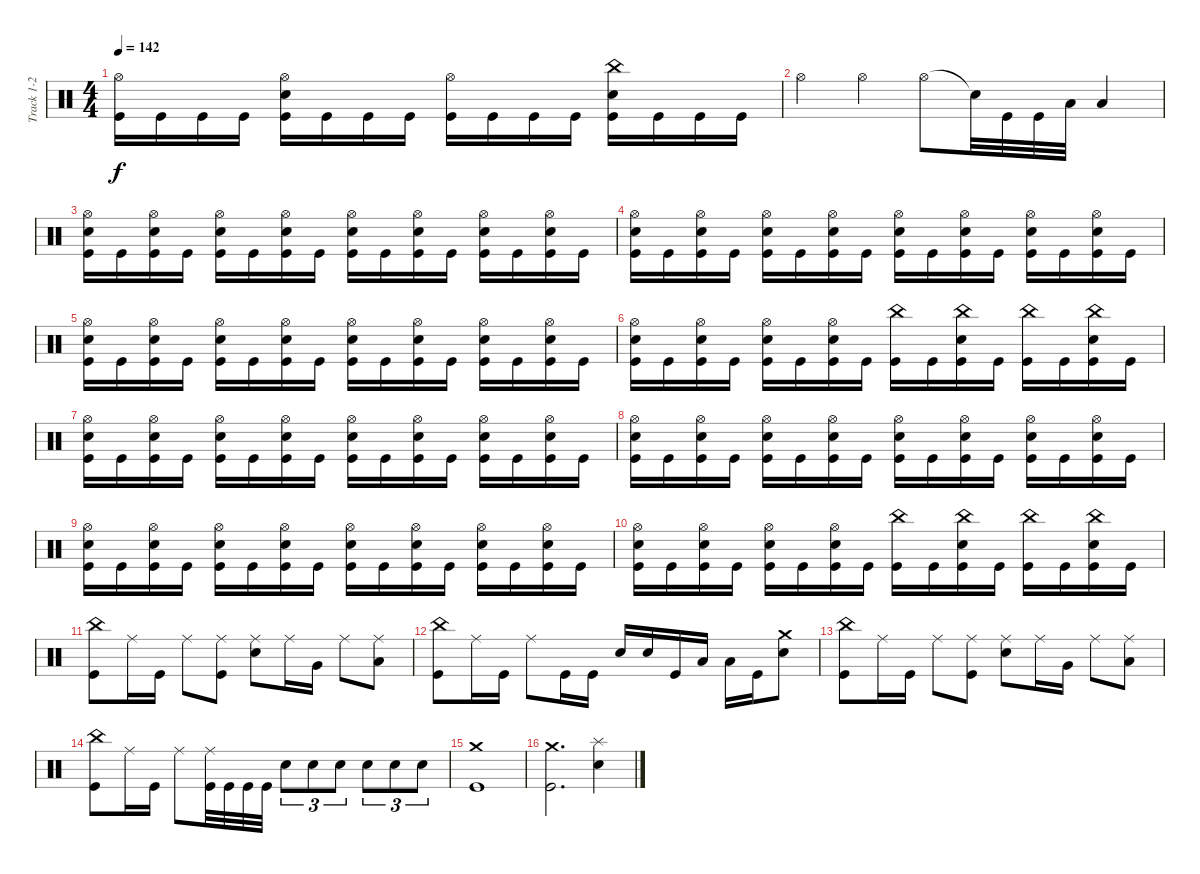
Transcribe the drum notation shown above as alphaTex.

\track ("Track 1-2" "Track 1-2") {instrument percussion}
\staff {score}
\articulation defaults
\ts (4 4)
\tempo 142
\clef neutral
\ks c
("Hi-Hat (open)" "Kick (hit)").16{dy f} "Kick (hit)".16 "Kick (hit)".16 "Kick (hit)".16 ("Hi-Hat (open)" "Electric Snare (hit)" "Kick (hit)").16 "Kick (hit)".16 "Kick (hit)".16 "Kick (hit)".16 ("Hi-Hat (open)" "Kick (hit)").16 "Kick (hit)".16 "Kick (hit)".16 "Kick (hit)".16 ("China (hit)" "Electric Snare (hit)" "Kick (hit)").16 "Kick (hit)".16 "Kick (hit)".16 "Kick (hit)".16 |
"Hi-Hat (open)".4 "Hi-Hat (open)".4 "Hi-Hat (open)".8 "Snare (hit)"{t}.32 "Kick (hit)".32 "Kick (hit)".32 "Low Floor Tom (hit)".32 "Low Floor Tom (hit)".4 |
("Hi-Hat (open)" "Electric Snare (hit)" "Kick (hit)").16 "Kick (hit)".16 ("Hi-Hat (open)" "Electric Snare (hit)" "Kick (hit)").16 "Kick (hit)".16 ("Hi-Hat (open)" "Electric Snare (hit)" "Kick (hit)").16 "Kick (hit)".16 ("Hi-Hat (open)" "Electric Snare (hit)" "Kick (hit)").16 "Kick (hit)".16 ("Hi-Hat (open)" "Electric Snare (hit)" "Kick (hit)").16 "Kick (hit)".16 ("Hi-Hat (open)" "Electric Snare (hit)" "Kick (hit)").16 "Kick (hit)".16 ("Hi-Hat (open)" "Electric Snare (hit)" "Kick (hit)").16 "Kick (hit)".16 ("Hi-Hat (open)" "Electric Snare (hit)" "Kick (hit)").16 "Kick (hit)".16 |
("Hi-Hat (open)" "Electric Snare (hit)" "Kick (hit)").16 "Kick (hit)".16 ("Hi-Hat (open)" "Electric Snare (hit)" "Kick (hit)").16 "Kick (hit)".16 ("Hi-Hat (open)" "Electric Snare (hit)" "Kick (hit)").16 "Kick (hit)".16 ("Hi-Hat (open)" "Electric Snare (hit)" "Kick (hit)").16 "Kick (hit)".16 ("Hi-Hat (open)" "Electric Snare (hit)" "Kick (hit)").16 "Kick (hit)".16 ("Hi-Hat (open)" "Electric Snare (hit)" "Kick (hit)").16 "Kick (hit)".16 ("Hi-Hat (open)" "Electric Snare (hit)" "Kick (hit)").16 "Kick (hit)".16 ("Hi-Hat (open)" "Electric Snare (hit)" "Kick (hit)").16 "Kick (hit)".16 |
("Hi-Hat (open)" "Electric Snare (hit)" "Kick (hit)").16 "Kick (hit)".16 ("Hi-Hat (open)" "Electric Snare (hit)" "Kick (hit)").16 "Kick (hit)".16 ("Hi-Hat (open)" "Electric Snare (hit)" "Kick (hit)").16 "Kick (hit)".16 ("Hi-Hat (open)" "Electric Snare (hit)" "Kick (hit)").16 "Kick (hit)".16 ("Hi-Hat (open)" "Electric Snare (hit)" "Kick (hit)").16 "Kick (hit)".16 ("Hi-Hat (open)" "Electric Snare (hit)" "Kick (hit)").16 "Kick (hit)".16 ("Hi-Hat (open)" "Electric Snare (hit)" "Kick (hit)").16 "Kick (hit)".16 ("Hi-Hat (open)" "Electric Snare (hit)" "Kick (hit)").16 "Kick (hit)".16 |
("Hi-Hat (open)" "Electric Snare (hit)" "Kick (hit)").16 "Kick (hit)".16 ("Hi-Hat (open)" "Electric Snare (hit)" "Kick (hit)").16 "Kick (hit)".16 ("Hi-Hat (open)" "Electric Snare (hit)" "Kick (hit)").16 "Kick (hit)".16 ("Hi-Hat (open)" "Electric Snare (hit)" "Kick (hit)").16 "Kick (hit)".16 ("China (hit)" "Kick (hit)").16 "Kick (hit)".16 ("China (hit)" "Electric Snare (hit)" "Kick (hit)").16 "Kick (hit)".16 ("China (hit)" "Kick (hit)").16 "Kick (hit)".16 ("China (hit)" "Electric Snare (hit)" "Kick (hit)").16 "Kick (hit)".16 |
("Hi-Hat (open)" "Electric Snare (hit)" "Kick (hit)").16 "Kick (hit)".16 ("Hi-Hat (open)" "Electric Snare (hit)" "Kick (hit)").16 "Kick (hit)".16 ("Hi-Hat (open)" "Electric Snare (hit)" "Kick (hit)").16 "Kick (hit)".16 ("Hi-Hat (open)" "Electric Snare (hit)" "Kick (hit)").16 "Kick (hit)".16 ("Hi-Hat (open)" "Electric Snare (hit)" "Kick (hit)").16 "Kick (hit)".16 ("Hi-Hat (open)" "Electric Snare (hit)" "Kick (hit)").16 "Kick (hit)".16 ("Hi-Hat (open)" "Electric Snare (hit)" "Kick (hit)").16 "Kick (hit)".16 ("Hi-Hat (open)" "Electric Snare (hit)" "Kick (hit)").16 "Kick (hit)".16 |
("Hi-Hat (open)" "Electric Snare (hit)" "Kick (hit)").16 "Kick (hit)".16 ("Hi-Hat (open)" "Electric Snare (hit)" "Kick (hit)").16 "Kick (hit)".16 ("Hi-Hat (open)" "Electric Snare (hit)" "Kick (hit)").16 "Kick (hit)".16 ("Hi-Hat (open)" "Electric Snare (hit)" "Kick (hit)").16 "Kick (hit)".16 ("Hi-Hat (open)" "Electric Snare (hit)" "Kick (hit)").16 "Kick (hit)".16 ("Hi-Hat (open)" "Electric Snare (hit)" "Kick (hit)").16 "Kick (hit)".16 ("Hi-Hat (open)" "Electric Snare (hit)" "Kick (hit)").16 "Kick (hit)".16 ("Hi-Hat (open)" "Electric Snare (hit)" "Kick (hit)").16 "Kick (hit)".16 |
("Hi-Hat (open)" "Electric Snare (hit)" "Kick (hit)").16 "Kick (hit)".16 ("Hi-Hat (open)" "Electric Snare (hit)" "Kick (hit)").16 "Kick (hit)".16 ("Hi-Hat (open)" "Electric Snare (hit)" "Kick (hit)").16 "Kick (hit)".16 ("Hi-Hat (open)" "Electric Snare (hit)" "Kick (hit)").16 "Kick (hit)".16 ("Hi-Hat (open)" "Electric Snare (hit)" "Kick (hit)").16 "Kick (hit)".16 ("Hi-Hat (open)" "Electric Snare (hit)" "Kick (hit)").16 "Kick (hit)".16 ("Hi-Hat (open)" "Electric Snare (hit)" "Kick (hit)").16 "Kick (hit)".16 ("Hi-Hat (open)" "Electric Snare (hit)" "Kick (hit)").16 "Kick (hit)".16 |
("Hi-Hat (open)" "Electric Snare (hit)" "Kick (hit)").16 "Kick (hit)".16 ("Hi-Hat (open)" "Electric Snare (hit)" "Kick (hit)").16 "Kick (hit)".16 ("Hi-Hat (open)" "Electric Snare (hit)" "Kick (hit)").16 "Kick (hit)".16 ("Hi-Hat (open)" "Electric Snare (hit)" "Kick (hit)").16 "Kick (hit)".16 ("China (hit)" "Kick (hit)").16 "Kick (hit)".16 ("China (hit)" "Electric Snare (hit)" "Kick (hit)").16 "Kick (hit)".16 ("China (hit)" "Kick (hit)").16 "Kick (hit)".16 ("China (hit)" "Electric Snare (hit)" "Kick (hit)").16 "Kick (hit)".16 |
("China (hit)" "Kick (hit)").8 "Ride (middle)".16 "Kick (hit)".16 "Ride (middle)".8 ("Ride (middle)" "Kick (hit)").8 ("Ride (middle)" "Electric Snare (hit)").8 "Ride (middle)".16 "Very Low Tom (hit)".16 "Ride (middle)".8 ("Ride (middle)" "Low Floor Tom (hit)").8 |
("China (hit)" "Kick (hit)").8 "Ride (middle)".16 "Kick (hit)".16 "Ride (middle)".8 "Kick (hit)".16 "Kick (hit)".16 "Electric Snare (hit)".16 "Electric Snare (hit)".16 "Kick (hit)".16 "Low Floor Tom (hit)".16 "Low Tom (hit)".16 "Kick (hit)".16 ("Crash medium (hit)" "Electric Snare (hit)").8 |
("China (hit)" "Kick (hit)").8 "Ride (middle)".16 "Kick (hit)".16 "Ride (middle)".8 ("Ride (middle)" "Kick (hit)").8 ("Ride (middle)" "Electric Snare (hit)").8 "Ride (middle)".16 "Very Low Tom (hit)".16 "Ride (middle)".8 ("Ride (middle)" "Low Floor Tom (hit)").8 |
("China (hit)" "Kick (hit)").8 "Ride (middle)".16 "Kick (hit)".16 "Ride (middle)".8 ("Ride (middle)" "Kick (hit)").32 "Kick (hit)".32 "Kick (hit)".32 "Kick (hit)".32 "Electric Snare (hit)".8{tu (3 2)} "Electric Snare (hit)".8{tu (3 2)} "Electric Snare (hit)".8{tu (3 2)} "Electric Snare (hit)".8{tu (3 2)} "Electric Snare (hit)".8{tu (3 2)} "Electric Snare (hit)".8{tu (3 2)} |
("Crash medium (hit)" "Kick (hit)").1 |
("Crash medium (hit)" "Kick (hit)").2{d} ("Splash (hit)" "Electric Snare (hit)").4
